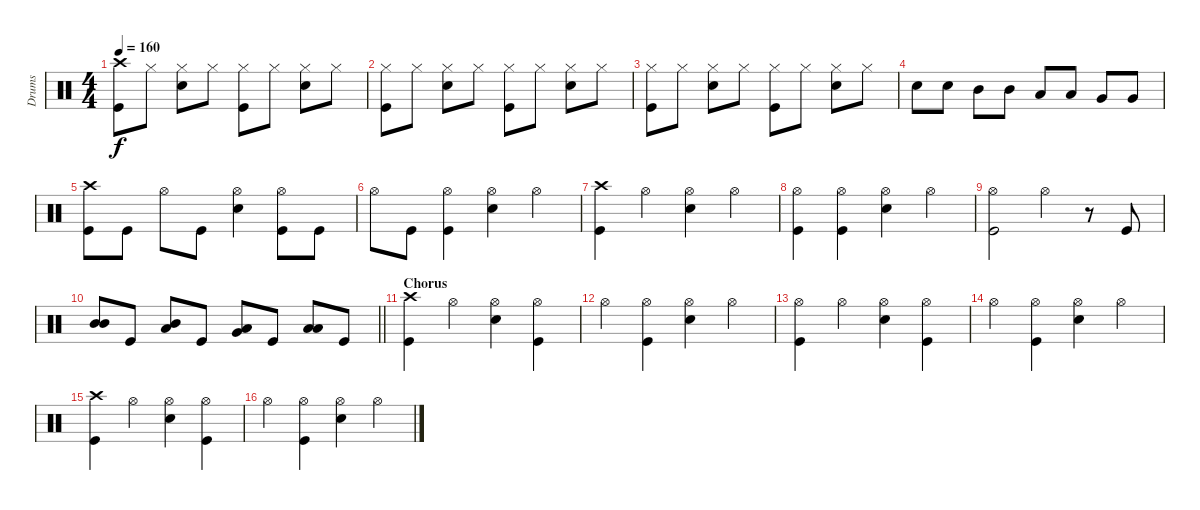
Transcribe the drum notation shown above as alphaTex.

\track ("Drums" "Drums") {instrument percussion}
\staff {score}
\articulation defaults
\ts (4 4)
\tempo 160
\clef neutral
\ks c
("Kick (hit)" "Crash high (hit)").8{dy f} "Hi-Hat (closed)".8 ("Hi-Hat (closed)" "Snare (hit) 2").8 "Hi-Hat (closed)".8 ("Kick (hit)" "Hi-Hat (closed)").8 "Hi-Hat (closed)".8 ("Hi-Hat (closed)" "Snare (hit) 2").8 "Hi-Hat (closed)".8 |
("Kick (hit)" "Hi-Hat (closed)").8 "Hi-Hat (closed)".8 ("Hi-Hat (closed)" "Snare (hit) 2").8 "Hi-Hat (closed)".8 ("Kick (hit)" "Hi-Hat (closed)").8 "Hi-Hat (closed)".8 ("Hi-Hat (closed)" "Snare (hit) 2").8 "Hi-Hat (closed)".8 |
("Kick (hit)" "Hi-Hat (closed)").8 "Hi-Hat (closed)".8 ("Hi-Hat (closed)" "Snare (hit) 2").8 "Hi-Hat (closed)".8 ("Kick (hit)" "Hi-Hat (closed)").8 "Hi-Hat (closed)".8 ("Hi-Hat (closed)" "Snare (hit) 2").8 "Hi-Hat (closed)".8 |
"Snare (hit) 2".8 "Snare (hit) 2".8 "Mid Tom (hit)".8 "Mid Tom (hit)".8 "Low Tom (hit)".8 "Low Tom (hit)".8 "Very Low Tom (hit)".8 "Very Low Tom (hit)".8 |
("Kick (hit)" "Crash high (hit)").8 "Kick (hit)".8 "Hi-Hat (open)".8 "Kick (hit)".8 ("Hi-Hat (open)" "Snare (hit) 2").4 ("Hi-Hat (open)" "Kick (hit)").8 "Kick (hit)".8 |
"Hi-Hat (open)".8 "Kick (hit)".8 ("Hi-Hat (open)" "Kick (hit)").4 ("Hi-Hat (open)" "Snare (hit) 2").4 "Hi-Hat (open)".4 |
("Kick (hit)" "Crash high (hit)").4 "Hi-Hat (open)".4 ("Hi-Hat (open)" "Snare (hit) 2").4 "Hi-Hat (open)".4 |
("Kick (hit)" "Hi-Hat (open)").4 ("Hi-Hat (open)" "Kick (hit)").4 ("Hi-Hat (open)" "Snare (hit) 2").4 "Hi-Hat (open)".4 |
("Kick (hit)" "Hi-Hat (open)").2 "Hi-Hat (open)".4 r.8 "Kick (hit)".8 |
\barLineRight lightlight
("Mid Tom (hit)" "Mid Tom (hit)").8 "Kick (hit)".8 ("Low Tom (hit)" "Mid Tom (hit)").8 "Kick (hit)".8 ("Very Low Tom (hit)" "Low Tom (hit)").8 "Kick (hit)".8 ("Low Floor Tom (hit)" "Low Floor Tom (hit)").8 "Kick (hit)".8 |
\section ("" "Chorus")
("Kick (hit)" "Crash high (hit)").4 "Hi-Hat (open)".4 ("Snare (hit) 2" "Hi-Hat (open)").4 ("Kick (hit)" "Hi-Hat (open)").4 |
"Hi-Hat (open)".4 ("Hi-Hat (open)" "Kick (hit)").4 ("Snare (hit) 2" "Hi-Hat (open)").4 "Hi-Hat (open)".4 |
("Kick (hit)" "Hi-Hat (open)").4 "Hi-Hat (open)".4 ("Snare (hit) 2" "Hi-Hat (open)").4 ("Kick (hit)" "Hi-Hat (open)").4 |
"Hi-Hat (open)".4 ("Kick (hit)" "Hi-Hat (open)").4 ("Snare (hit) 2" "Hi-Hat (open)").4 "Hi-Hat (open)".4 |
("Kick (hit)" "Crash high (hit)").4 "Hi-Hat (open)".4 ("Snare (hit) 2" "Hi-Hat (open)").4 ("Kick (hit)" "Hi-Hat (open)").4 |
"Hi-Hat (open)".4 ("Hi-Hat (open)" "Kick (hit)").4 ("Snare (hit) 2" "Hi-Hat (open)").4 "Hi-Hat (open)".4
